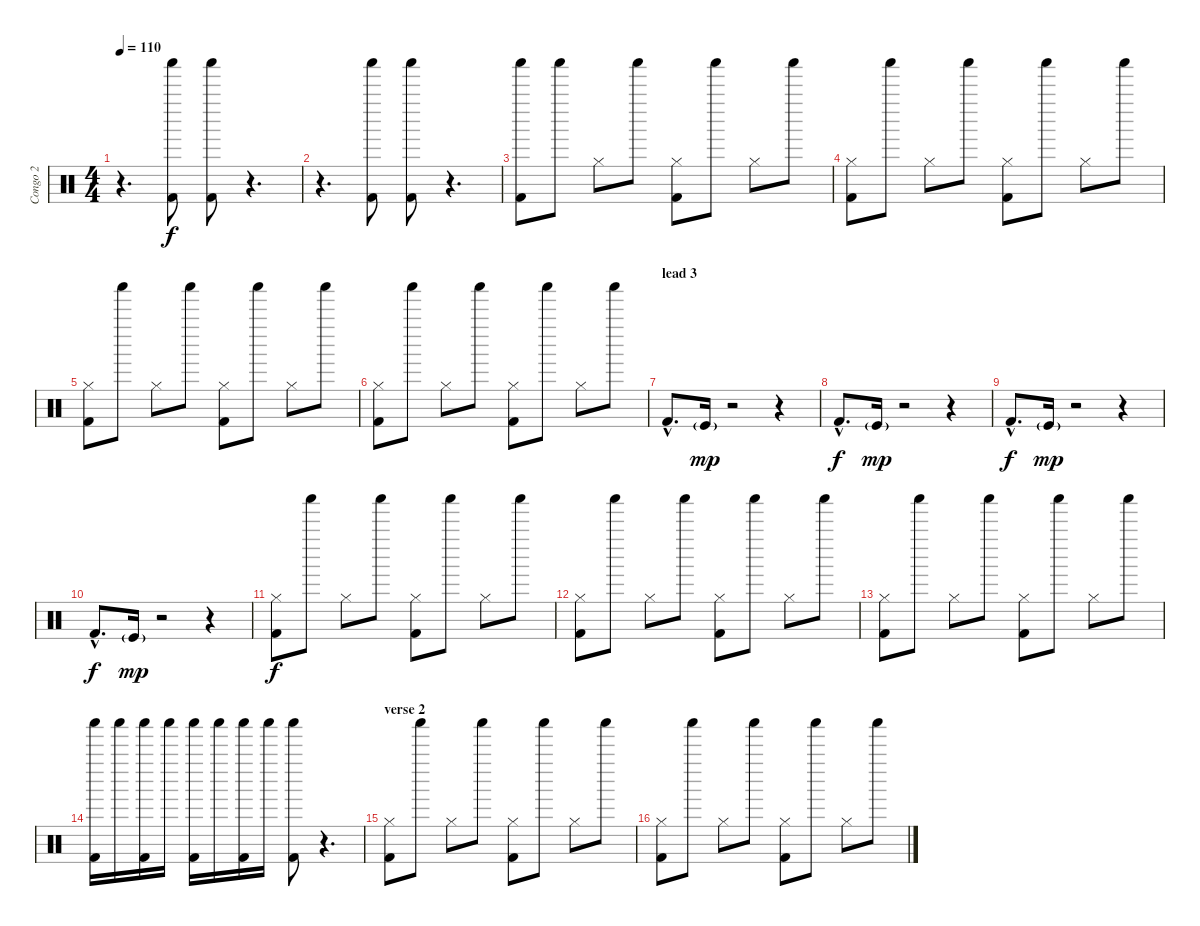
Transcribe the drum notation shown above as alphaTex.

\track ("Congo 2" "Congo 2") {instrument percussion}
\staff {score}
\articulation defaults
\ts (4 4)
\tempo 110
\clef neutral
\ks c
r.4{d dy f} ("Kick (hit) 2" "Shaker (hit)").8 ("Kick (hit) 2" "Shaker (hit)").8 r.4{d} |
r.4{d} ("Kick (hit) 2" "Shaker (hit)").8 ("Kick (hit) 2" "Shaker (hit)").8 r.4{d} |
("Kick (hit) 2" "Shaker (hit)").8 "Shaker (hit)".8 "Hi-Hat (closed)".8 "Shaker (hit)".8 ("Kick (hit) 2" "Hi-Hat (closed)").8 "Shaker (hit)".8 "Hi-Hat (closed)".8 "Shaker (hit)".8 |
("Kick (hit) 2" "Hi-Hat (closed)").8 "Shaker (hit)".8 "Hi-Hat (closed)".8 "Shaker (hit)".8 ("Kick (hit) 2" "Hi-Hat (closed)").8 "Shaker (hit)".8 "Hi-Hat (closed)".8 "Shaker (hit)".8 |
("Kick (hit) 2" "Hi-Hat (closed)").8 "Shaker (hit)".8 "Hi-Hat (closed)".8 "Shaker (hit)".8 ("Kick (hit) 2" "Hi-Hat (closed)").8 "Shaker (hit)".8 "Hi-Hat (closed)".8 "Shaker (hit)".8 |
("Kick (hit) 2" "Hi-Hat (closed)").8 "Shaker (hit)".8 "Hi-Hat (closed)".8 "Shaker (hit)".8 ("Kick (hit) 2" "Hi-Hat (closed)").8 "Shaker (hit)".8 "Hi-Hat (closed)".8 "Shaker (hit)".8 |
\section ("" "lead 3")
"Kick (hit) 2"{hac}.8{d} "Kick (hit)"{g}.16{dy mp} r.2 r.4 |
"Kick (hit) 2"{hac}.8{d dy f} "Kick (hit)"{g}.16{dy mp} r.2 r.4 |
"Kick (hit) 2"{hac}.8{d dy f} "Kick (hit)"{g}.16{dy mp} r.2 r.4 |
"Kick (hit) 2"{hac}.8{d dy f} "Kick (hit)"{g}.16{dy mp} r.2 r.4 |
("Kick (hit) 2" "Hi-Hat (closed)").8{dy f} "Shaker (hit)".8 "Hi-Hat (closed)".8 "Shaker (hit)".8 ("Kick (hit) 2" "Hi-Hat (closed)").8 "Shaker (hit)".8 "Hi-Hat (closed)".8 "Shaker (hit)".8 |
("Kick (hit) 2" "Hi-Hat (closed)").8 "Shaker (hit)".8 "Hi-Hat (closed)".8 "Shaker (hit)".8 ("Kick (hit) 2" "Hi-Hat (closed)").8 "Shaker (hit)".8 "Hi-Hat (closed)".8 "Shaker (hit)".8 |
("Kick (hit) 2" "Hi-Hat (closed)").8 "Shaker (hit)".8 "Hi-Hat (closed)".8 "Shaker (hit)".8 ("Kick (hit) 2" "Hi-Hat (closed)").8 "Shaker (hit)".8 "Hi-Hat (closed)".8 "Shaker (hit)".8 |
("Kick (hit) 2" "Shaker (hit)").16 "Shaker (hit)".16 ("Kick (hit) 2" "Shaker (hit)").16 "Shaker (hit)".16 ("Kick (hit) 2" "Shaker (hit)").16 "Shaker (hit)".16 ("Kick (hit) 2" "Shaker (hit)").16 "Shaker (hit)".16 ("Kick (hit) 2" "Shaker (hit)").8 r.4{d} |
\section ("" "verse 2")
("Kick (hit) 2" "Hi-Hat (closed)").8 "Shaker (hit)".8 "Hi-Hat (closed)".8 "Shaker (hit)".8 ("Kick (hit) 2" "Hi-Hat (closed)").8 "Shaker (hit)".8 "Hi-Hat (closed)".8 "Shaker (hit)".8 |
("Kick (hit) 2" "Hi-Hat (closed)").8 "Shaker (hit)".8 "Hi-Hat (closed)".8 "Shaker (hit)".8 ("Kick (hit) 2" "Hi-Hat (closed)").8 "Shaker (hit)".8 "Hi-Hat (closed)".8 "Shaker (hit)".8
